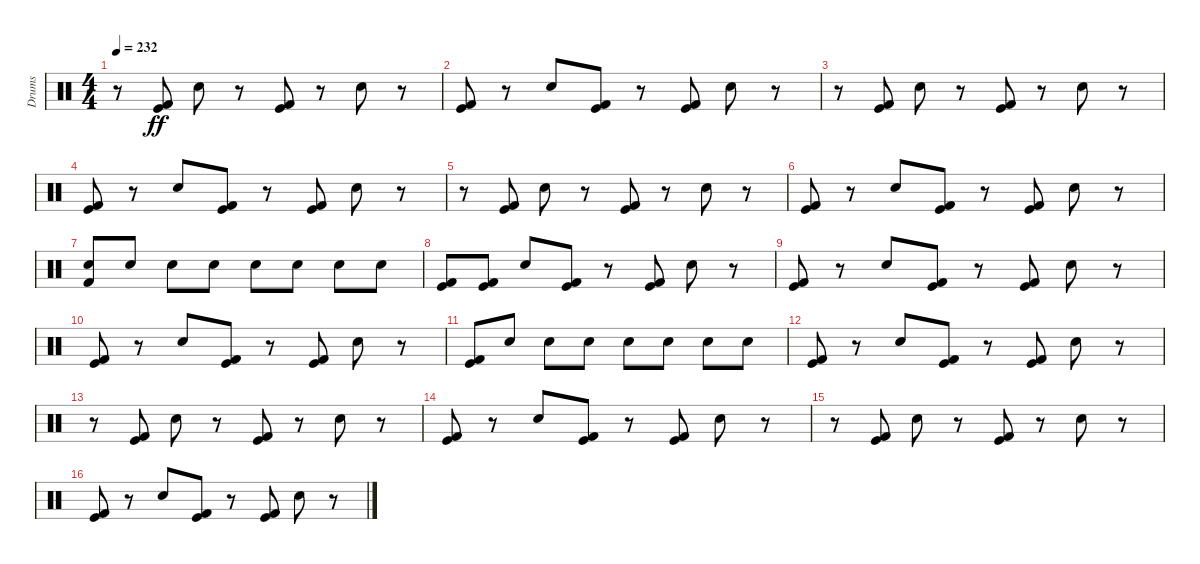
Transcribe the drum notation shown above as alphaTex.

\track ("Drums" "Drums") {instrument percussion}
\staff {score}
\articulation defaults
\ts (4 4)
\tempo 232
\clef neutral
\ks c
r.8{dy ff} ("Kick (hit)" "Kick (hit) 2").8 "Snare (hit) 2".8 r.8 ("Kick (hit)" "Kick (hit) 2").8 r.8 "Snare (hit) 2".8 r.8 |
("Kick (hit)" "Kick (hit) 2").8 r.8 "Snare (hit) 2".8 ("Kick (hit)" "Kick (hit) 2").8 r.8 ("Kick (hit)" "Kick (hit) 2").8 "Snare (hit) 2".8 r.8 |
r.8 ("Kick (hit)" "Kick (hit) 2").8 "Snare (hit) 2".8 r.8 ("Kick (hit)" "Kick (hit) 2").8 r.8 "Snare (hit) 2".8 r.8 |
("Kick (hit)" "Kick (hit) 2").8 r.8 "Snare (hit) 2".8 ("Kick (hit)" "Kick (hit) 2").8 r.8 ("Kick (hit)" "Kick (hit) 2").8 "Snare (hit) 2".8 r.8 |
r.8 ("Kick (hit)" "Kick (hit) 2").8 "Snare (hit) 2".8 r.8 ("Kick (hit)" "Kick (hit) 2").8 r.8 "Snare (hit) 2".8 r.8 |
("Kick (hit)" "Kick (hit) 2").8 r.8 "Snare (hit) 2".8 ("Kick (hit)" "Kick (hit) 2").8 r.8 ("Kick (hit)" "Kick (hit) 2").8 "Snare (hit) 2".8 r.8 |
("Kick (hit) 2" "Snare (hit) 2").8 "Snare (hit) 2".8 "Snare (hit) 2".8 "Snare (hit) 2".8 "Snare (hit) 2".8 "Snare (hit) 2".8 "Snare (hit) 2".8 "Snare (hit) 2".8 |
("Kick (hit)" "Kick (hit) 2").8 ("Kick (hit)" "Kick (hit) 2").8 "Snare (hit) 2".8 ("Kick (hit)" "Kick (hit) 2").8 r.8 ("Kick (hit)" "Kick (hit) 2").8 "Snare (hit) 2".8 r.8 |
("Kick (hit)" "Kick (hit) 2").8 r.8 "Snare (hit) 2".8 ("Kick (hit)" "Kick (hit) 2").8 r.8 ("Kick (hit)" "Kick (hit) 2").8 "Snare (hit) 2".8 r.8 |
("Kick (hit)" "Kick (hit) 2").8 r.8 "Snare (hit) 2".8 ("Kick (hit)" "Kick (hit) 2").8 r.8 ("Kick (hit)" "Kick (hit) 2").8 "Snare (hit) 2".8 r.8 |
("Kick (hit)" "Kick (hit) 2").8 "Snare (hit) 2".8 "Snare (hit) 2".8 "Snare (hit) 2".8 "Snare (hit) 2".8 "Snare (hit) 2".8 "Snare (hit) 2".8 "Snare (hit) 2".8 |
("Kick (hit)" "Kick (hit) 2").8 r.8 "Snare (hit) 2".8 ("Kick (hit)" "Kick (hit) 2").8 r.8 ("Kick (hit)" "Kick (hit) 2").8 "Snare (hit) 2".8 r.8 |
r.8 ("Kick (hit)" "Kick (hit) 2").8 "Snare (hit) 2".8 r.8 ("Kick (hit)" "Kick (hit) 2").8 r.8 "Snare (hit) 2".8 r.8 |
("Kick (hit)" "Kick (hit) 2").8 r.8 "Snare (hit) 2".8 ("Kick (hit)" "Kick (hit) 2").8 r.8 ("Kick (hit)" "Kick (hit) 2").8 "Snare (hit) 2".8 r.8 |
r.8 ("Kick (hit)" "Kick (hit) 2").8 "Snare (hit) 2".8 r.8 ("Kick (hit)" "Kick (hit) 2").8 r.8 "Snare (hit) 2".8 r.8 |
("Kick (hit)" "Kick (hit) 2").8 r.8 "Snare (hit) 2".8 ("Kick (hit)" "Kick (hit) 2").8 r.8 ("Kick (hit)" "Kick (hit) 2").8 "Snare (hit) 2".8 r.8
